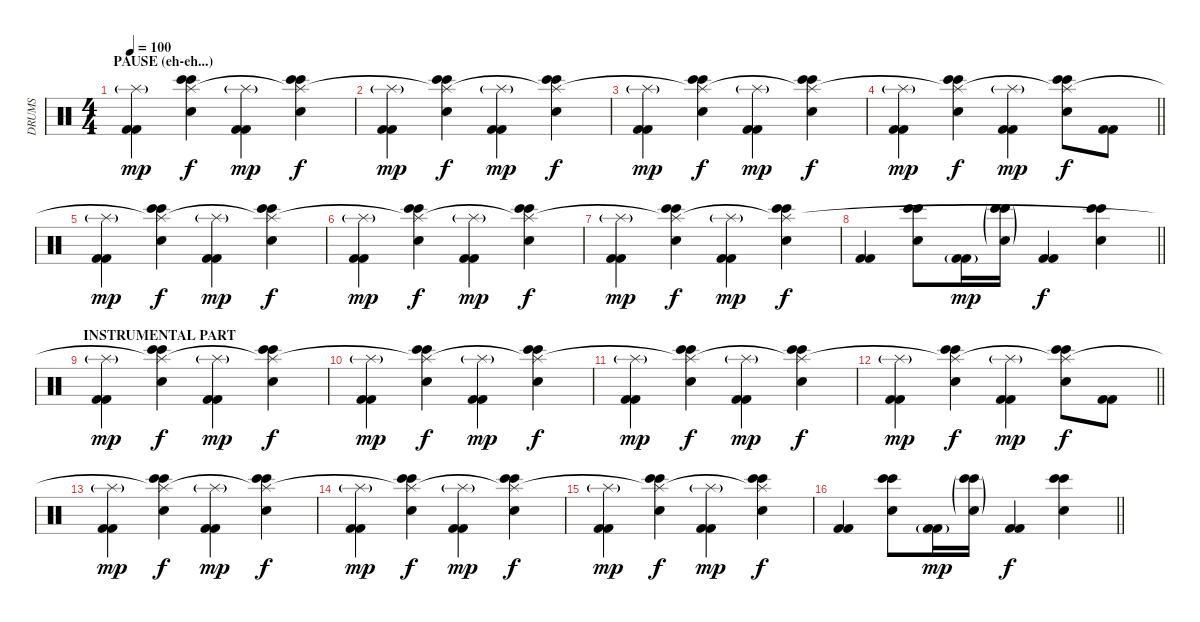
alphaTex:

\track ("DRUMS" "DRUMS") {instrument percussion}
\staff {score}
\articulation defaults
\ts (4 4)
\section ("" "PAUSE (eh-eh...)")
\tempo 100
\clef neutral
\ks c
("Kick (hit) 2" "Kick (hit) 2" "Splash (hit)"{g}).4{dy mp} ("Bongo High (hit)" "Bongo High (hit)" "Snare (hit) 2" "Splash (hit)").4{dy f} ("Kick (hit) 2" "Kick (hit) 2" "Splash (hit)"{g}).4{dy mp} ("Bongo High (hit)" "Bongo High (hit)" "Snare (hit) 2" "Splash (hit)"{t}).4{dy f} |
("Kick (hit) 2" "Kick (hit) 2" "Splash (hit)"{g}).4{dy mp} ("Bongo High (hit)" "Bongo High (hit)" "Snare (hit) 2" "Splash (hit)"{t}).4{dy f} ("Kick (hit) 2" "Kick (hit) 2" "Splash (hit)"{g}).4{dy mp} ("Bongo High (hit)" "Bongo High (hit)" "Snare (hit) 2" "Splash (hit)"{t}).4{dy f} |
("Kick (hit) 2" "Kick (hit) 2" "Splash (hit)"{g}).4{dy mp} ("Bongo High (hit)" "Bongo High (hit)" "Snare (hit) 2" "Splash (hit)"{t}).4{dy f} ("Kick (hit) 2" "Kick (hit) 2" "Splash (hit)"{g}).4{dy mp} ("Bongo High (hit)" "Bongo High (hit)" "Snare (hit) 2" "Splash (hit)"{t}).4{dy f} |
\barLineRight lightlight
("Kick (hit) 2" "Kick (hit) 2" "Splash (hit)"{g}).4{dy mp} ("Bongo High (hit)" "Bongo High (hit)" "Snare (hit) 2" "Splash (hit)"{t}).4{dy f} ("Kick (hit) 2" "Kick (hit) 2" "Splash (hit)"{g}).4{dy mp} ("Bongo High (hit)" "Bongo High (hit)" "Snare (hit) 2" "Splash (hit)"{t}).8{dy f} ("Kick (hit) 2" "Kick (hit) 2").8 |
("Kick (hit) 2" "Kick (hit) 2" "Splash (hit)"{g}).4{dy mp} ("Bongo High (hit)" "Bongo High (hit)" "Snare (hit) 2" "Splash (hit)"{t}).4{dy f} ("Kick (hit) 2" "Kick (hit) 2" "Splash (hit)"{g}).4{dy mp} ("Bongo High (hit)" "Bongo High (hit)" "Snare (hit) 2" "Splash (hit)"{t}).4{dy f} |
("Kick (hit) 2" "Kick (hit) 2" "Splash (hit)"{g}).4{dy mp} ("Bongo High (hit)" "Bongo High (hit)" "Snare (hit) 2" "Splash (hit)"{t}).4{dy f} ("Kick (hit) 2" "Kick (hit) 2" "Splash (hit)"{g}).4{dy mp} ("Bongo High (hit)" "Bongo High (hit)" "Snare (hit) 2" "Splash (hit)"{t}).4{dy f} |
("Kick (hit) 2" "Kick (hit) 2" "Splash (hit)"{g}).4{dy mp} ("Bongo High (hit)" "Bongo High (hit)" "Snare (hit) 2" "Splash (hit)"{t}).4{dy f} ("Kick (hit) 2" "Kick (hit) 2" "Splash (hit)"{g}).4{dy mp} ("Bongo High (hit)" "Bongo High (hit)" "Snare (hit) 2" "Splash (hit)"{t}).4{dy f} |
\barLineRight lightlight
("Kick (hit) 2" "Kick (hit) 2").4 ("Bongo High (hit)" "Bongo High (hit)" "Snare (hit) 2").8 ("Kick (hit) 2"{g} "Kick (hit) 2"{g}).16{dy mp} ("Bongo High (hit)"{g} "Bongo High (hit)"{g} "Snare (hit) 2"{g}).16 ("Kick (hit) 2" "Kick (hit) 2").4{dy f} ("Bongo High (hit)" "Bongo High (hit)" "Snare (hit) 2").4 |
\section ("" "INSTRUMENTAL PART")
("Kick (hit) 2" "Kick (hit) 2" "Splash (hit)"{g}).4{dy mp} ("Bongo High (hit)" "Bongo High (hit)" "Snare (hit) 2" "Splash (hit)"{t}).4{dy f} ("Kick (hit) 2" "Kick (hit) 2" "Splash (hit)"{g}).4{dy mp} ("Bongo High (hit)" "Bongo High (hit)" "Snare (hit) 2" "Splash (hit)"{t}).4{dy f} |
("Kick (hit) 2" "Kick (hit) 2" "Splash (hit)"{g}).4{dy mp} ("Bongo High (hit)" "Bongo High (hit)" "Snare (hit) 2" "Splash (hit)"{t}).4{dy f} ("Kick (hit) 2" "Kick (hit) 2" "Splash (hit)"{g}).4{dy mp} ("Bongo High (hit)" "Bongo High (hit)" "Snare (hit) 2" "Splash (hit)"{t}).4{dy f} |
("Kick (hit) 2" "Kick (hit) 2" "Splash (hit)"{g}).4{dy mp} ("Bongo High (hit)" "Bongo High (hit)" "Snare (hit) 2" "Splash (hit)"{t}).4{dy f} ("Kick (hit) 2" "Kick (hit) 2" "Splash (hit)"{g}).4{dy mp} ("Bongo High (hit)" "Bongo High (hit)" "Snare (hit) 2" "Splash (hit)"{t}).4{dy f} |
\barLineRight lightlight
("Kick (hit) 2" "Kick (hit) 2" "Splash (hit)"{g}).4{dy mp} ("Bongo High (hit)" "Bongo High (hit)" "Snare (hit) 2" "Splash (hit)"{t}).4{dy f} ("Kick (hit) 2" "Kick (hit) 2" "Splash (hit)"{g}).4{dy mp} ("Bongo High (hit)" "Bongo High (hit)" "Snare (hit) 2" "Splash (hit)"{t}).8{dy f} ("Kick (hit) 2" "Kick (hit) 2").8 |
("Kick (hit) 2" "Kick (hit) 2" "Splash (hit)"{g}).4{dy mp} ("Bongo High (hit)" "Bongo High (hit)" "Snare (hit) 2" "Splash (hit)"{t}).4{dy f} ("Kick (hit) 2" "Kick (hit) 2" "Splash (hit)"{g}).4{dy mp} ("Bongo High (hit)" "Bongo High (hit)" "Snare (hit) 2" "Splash (hit)"{t}).4{dy f} |
("Kick (hit) 2" "Kick (hit) 2" "Splash (hit)"{g}).4{dy mp} ("Bongo High (hit)" "Bongo High (hit)" "Snare (hit) 2" "Splash (hit)"{t}).4{dy f} ("Kick (hit) 2" "Kick (hit) 2" "Splash (hit)"{g}).4{dy mp} ("Bongo High (hit)" "Bongo High (hit)" "Snare (hit) 2" "Splash (hit)"{t}).4{dy f} |
("Kick (hit) 2" "Kick (hit) 2" "Splash (hit)"{g}).4{dy mp} ("Bongo High (hit)" "Bongo High (hit)" "Snare (hit) 2" "Splash (hit)"{t}).4{dy f} ("Kick (hit) 2" "Kick (hit) 2" "Splash (hit)"{g}).4{dy mp} ("Bongo High (hit)" "Bongo High (hit)" "Snare (hit) 2" "Splash (hit)"{t}).4{dy f} |
\barLineRight lightlight
("Kick (hit) 2" "Kick (hit) 2").4 ("Bongo High (hit)" "Bongo High (hit)" "Snare (hit) 2").8 ("Kick (hit) 2"{g} "Kick (hit) 2"{g}).16{dy mp} ("Bongo High (hit)"{g} "Bongo High (hit)"{g} "Snare (hit) 2"{g}).16 ("Kick (hit) 2" "Kick (hit) 2").4{dy f} ("Bongo High (hit)" "Bongo High (hit)" "Snare (hit) 2").4
